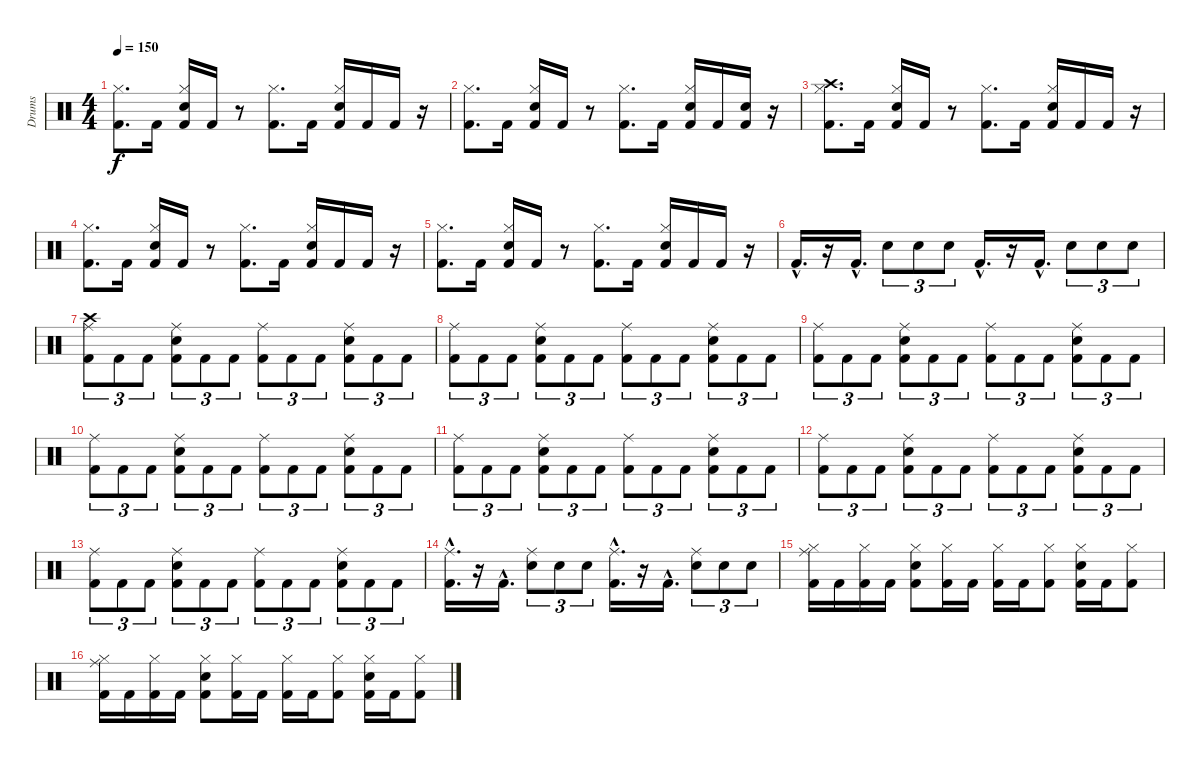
\track ("Drums" "Drums") {instrument percussion}
\staff {score}
\articulation defaults
\ts (4 4)
\tempo 150
\clef neutral
\ks c
("Kick (hit) 2" "Hi-Hat (closed)").8{d dy f} "Kick (hit) 2".16 ("Kick (hit) 2" "Snare (hit) 2" "Hi-Hat (closed)").16 "Kick (hit) 2".16 r.8 ("Kick (hit) 2" "Hi-Hat (closed)").8{d} "Kick (hit) 2".16 ("Kick (hit) 2" "Snare (hit) 2" "Hi-Hat (closed)").16 "Kick (hit) 2".16 "Kick (hit) 2".16 r.16 |
("Kick (hit) 2" "Hi-Hat (closed)").8{d} "Kick (hit) 2".16 ("Kick (hit) 2" "Snare (hit) 2" "Hi-Hat (closed)").16 "Kick (hit) 2".16 r.8 ("Kick (hit) 2" "Hi-Hat (closed)").8{d} "Kick (hit) 2".16 ("Kick (hit) 2" "Snare (hit) 2" "Hi-Hat (closed)").16 "Kick (hit) 2".16 ("Kick (hit) 2" "Snare (hit) 2").16 r.16 |
("Kick (hit) 2" "Hi-Hat (closed)" "Crash high (hit)").8{d} "Kick (hit) 2".16 ("Kick (hit) 2" "Snare (hit) 2" "Hi-Hat (closed)").16 "Kick (hit) 2".16 r.8 ("Kick (hit) 2" "Hi-Hat (closed)").8{d} "Kick (hit) 2".16 ("Kick (hit) 2" "Snare (hit) 2" "Hi-Hat (closed)").16 "Kick (hit) 2".16 "Kick (hit) 2".16 r.16 |
("Kick (hit) 2" "Hi-Hat (closed)").8{d} "Kick (hit) 2".16 ("Kick (hit) 2" "Snare (hit) 2" "Hi-Hat (closed)").16 "Kick (hit) 2".16 r.8 ("Kick (hit) 2" "Hi-Hat (closed)").8{d} "Kick (hit) 2".16 ("Kick (hit) 2" "Snare (hit) 2" "Hi-Hat (closed)").16 "Kick (hit) 2".16 "Kick (hit) 2".16 r.16 |
("Kick (hit) 2" "Hi-Hat (closed)").8{d} "Kick (hit) 2".16 ("Kick (hit) 2" "Snare (hit) 2" "Hi-Hat (closed)").16 "Kick (hit) 2".16 r.8 ("Kick (hit) 2" "Hi-Hat (closed)").8{d} "Kick (hit) 2".16 ("Kick (hit) 2" "Snare (hit) 2" "Hi-Hat (closed)").16 "Kick (hit) 2".16 "Kick (hit) 2".16 r.16 |
"Kick (hit) 2"{hac}.16{d} r.16 "Kick (hit) 2"{hac}.16{d} "Snare (hit) 2".8{tu (3 2)} "Snare (hit) 2".8{tu (3 2)} "Snare (hit) 2".8{tu (3 2)} "Kick (hit) 2"{hac}.16{d} r.16 "Kick (hit) 2"{hac}.16{d} "Snare (hit) 2".8{tu (3 2)} "Snare (hit) 2".8{tu (3 2)} "Snare (hit) 2".8{tu (3 2)} |
("Kick (hit) 2" "Crash high (hit)" "Ride (middle)").8{tu (3 2)} "Kick (hit) 2".8{tu (3 2)} "Kick (hit) 2".8{tu (3 2)} ("Kick (hit) 2" "Snare (hit) 2" "Ride (middle)").8{tu (3 2)} "Kick (hit) 2".8{tu (3 2)} "Kick (hit) 2".8{tu (3 2)} ("Kick (hit) 2" "Ride (middle)").8{tu (3 2)} "Kick (hit) 2".8{tu (3 2)} "Kick (hit) 2".8{tu (3 2)} ("Kick (hit) 2" "Snare (hit) 2" "Ride (middle)").8{tu (3 2)} "Kick (hit) 2".8{tu (3 2)} "Kick (hit) 2".8{tu (3 2)} |
("Kick (hit) 2" "Ride (middle)").8{tu (3 2)} "Kick (hit) 2".8{tu (3 2)} "Kick (hit) 2".8{tu (3 2)} ("Kick (hit) 2" "Snare (hit) 2" "Ride (middle)").8{tu (3 2)} "Kick (hit) 2".8{tu (3 2)} "Kick (hit) 2".8{tu (3 2)} ("Kick (hit) 2" "Ride (middle)").8{tu (3 2)} "Kick (hit) 2".8{tu (3 2)} "Kick (hit) 2".8{tu (3 2)} ("Kick (hit) 2" "Snare (hit) 2" "Ride (middle)").8{tu (3 2)} "Kick (hit) 2".8{tu (3 2)} "Kick (hit) 2".8{tu (3 2)} |
("Kick (hit) 2" "Ride (middle)").8{tu (3 2)} "Kick (hit) 2".8{tu (3 2)} "Kick (hit) 2".8{tu (3 2)} ("Kick (hit) 2" "Snare (hit) 2" "Ride (middle)").8{tu (3 2)} "Kick (hit) 2".8{tu (3 2)} "Kick (hit) 2".8{tu (3 2)} ("Kick (hit) 2" "Ride (middle)").8{tu (3 2)} "Kick (hit) 2".8{tu (3 2)} "Kick (hit) 2".8{tu (3 2)} ("Kick (hit) 2" "Snare (hit) 2" "Ride (middle)").8{tu (3 2)} "Kick (hit) 2".8{tu (3 2)} "Kick (hit) 2".8{tu (3 2)} |
("Kick (hit) 2" "Ride (middle)").8{tu (3 2)} "Kick (hit) 2".8{tu (3 2)} "Kick (hit) 2".8{tu (3 2)} ("Kick (hit) 2" "Snare (hit) 2" "Ride (middle)").8{tu (3 2)} "Kick (hit) 2".8{tu (3 2)} "Kick (hit) 2".8{tu (3 2)} ("Kick (hit) 2" "Ride (middle)").8{tu (3 2)} "Kick (hit) 2".8{tu (3 2)} "Kick (hit) 2".8{tu (3 2)} ("Kick (hit) 2" "Snare (hit) 2" "Ride (middle)").8{tu (3 2)} "Kick (hit) 2".8{tu (3 2)} "Kick (hit) 2".8{tu (3 2)} |
("Kick (hit) 2" "Ride (middle)").8{tu (3 2)} "Kick (hit) 2".8{tu (3 2)} "Kick (hit) 2".8{tu (3 2)} ("Kick (hit) 2" "Snare (hit) 2" "Ride (middle)").8{tu (3 2)} "Kick (hit) 2".8{tu (3 2)} "Kick (hit) 2".8{tu (3 2)} ("Kick (hit) 2" "Ride (middle)").8{tu (3 2)} "Kick (hit) 2".8{tu (3 2)} "Kick (hit) 2".8{tu (3 2)} ("Kick (hit) 2" "Snare (hit) 2" "Ride (middle)").8{tu (3 2)} "Kick (hit) 2".8{tu (3 2)} "Kick (hit) 2".8{tu (3 2)} |
("Kick (hit) 2" "Ride (middle)").8{tu (3 2)} "Kick (hit) 2".8{tu (3 2)} "Kick (hit) 2".8{tu (3 2)} ("Kick (hit) 2" "Snare (hit) 2" "Ride (middle)").8{tu (3 2)} "Kick (hit) 2".8{tu (3 2)} "Kick (hit) 2".8{tu (3 2)} ("Kick (hit) 2" "Ride (middle)").8{tu (3 2)} "Kick (hit) 2".8{tu (3 2)} "Kick (hit) 2".8{tu (3 2)} ("Kick (hit) 2" "Snare (hit) 2" "Ride (middle)").8{tu (3 2)} "Kick (hit) 2".8{tu (3 2)} "Kick (hit) 2".8{tu (3 2)} |
("Kick (hit) 2" "Ride (middle)").8{tu (3 2)} "Kick (hit) 2".8{tu (3 2)} "Kick (hit) 2".8{tu (3 2)} ("Kick (hit) 2" "Snare (hit) 2" "Ride (middle)").8{tu (3 2)} "Kick (hit) 2".8{tu (3 2)} "Kick (hit) 2".8{tu (3 2)} ("Kick (hit) 2" "Ride (middle)").8{tu (3 2)} "Kick (hit) 2".8{tu (3 2)} "Kick (hit) 2".8{tu (3 2)} ("Kick (hit) 2" "Snare (hit) 2" "Ride (middle)").8{tu (3 2)} "Kick (hit) 2".8{tu (3 2)} "Kick (hit) 2".8{tu (3 2)} |
("Kick (hit) 2"{hac} "Ride (middle)"{hac}).16{d} r.16 "Kick (hit) 2"{hac}.16{d} ("Snare (hit) 2" "Ride (middle)").8{tu (3 2)} "Snare (hit) 2".8{tu (3 2)} "Snare (hit) 2".8{tu (3 2)} ("Kick (hit) 2"{hac} "Ride (middle)"{hac}).16{d} r.16 "Kick (hit) 2"{hac}.16{d} ("Snare (hit) 2" "Ride (middle)").8{tu (3 2)} "Snare (hit) 2".8{tu (3 2)} "Snare (hit) 2".8{tu (3 2)} |
("Kick (hit) 2" "Hi-Hat (closed)" "Ride (middle)").16 "Kick (hit) 2".16 ("Kick (hit) 2" "Hi-Hat (closed)").16 "Kick (hit) 2".16 ("Kick (hit) 2" "Snare (hit) 2" "Hi-Hat (closed)").8 ("Kick (hit) 2" "Hi-Hat (closed)").16 "Kick (hit) 2".16 ("Kick (hit) 2" "Hi-Hat (closed)").16 "Kick (hit) 2".16 ("Kick (hit) 2" "Hi-Hat (closed)").8 ("Kick (hit) 2" "Snare (hit) 2" "Hi-Hat (closed)").16 "Kick (hit) 2".16 ("Kick (hit) 2" "Hi-Hat (closed)").8 |
("Kick (hit) 2" "Hi-Hat (closed)" "Ride (middle)").16 "Kick (hit) 2".16 ("Kick (hit) 2" "Hi-Hat (closed)").16 "Kick (hit) 2".16 ("Kick (hit) 2" "Snare (hit) 2" "Hi-Hat (closed)").8 ("Kick (hit) 2" "Hi-Hat (closed)").16 "Kick (hit) 2".16 ("Kick (hit) 2" "Hi-Hat (closed)").16 "Kick (hit) 2".16 ("Kick (hit) 2" "Hi-Hat (closed)").8 ("Kick (hit) 2" "Snare (hit) 2" "Hi-Hat (closed)").16 "Kick (hit) 2".16 ("Kick (hit) 2" "Hi-Hat (closed)").8
